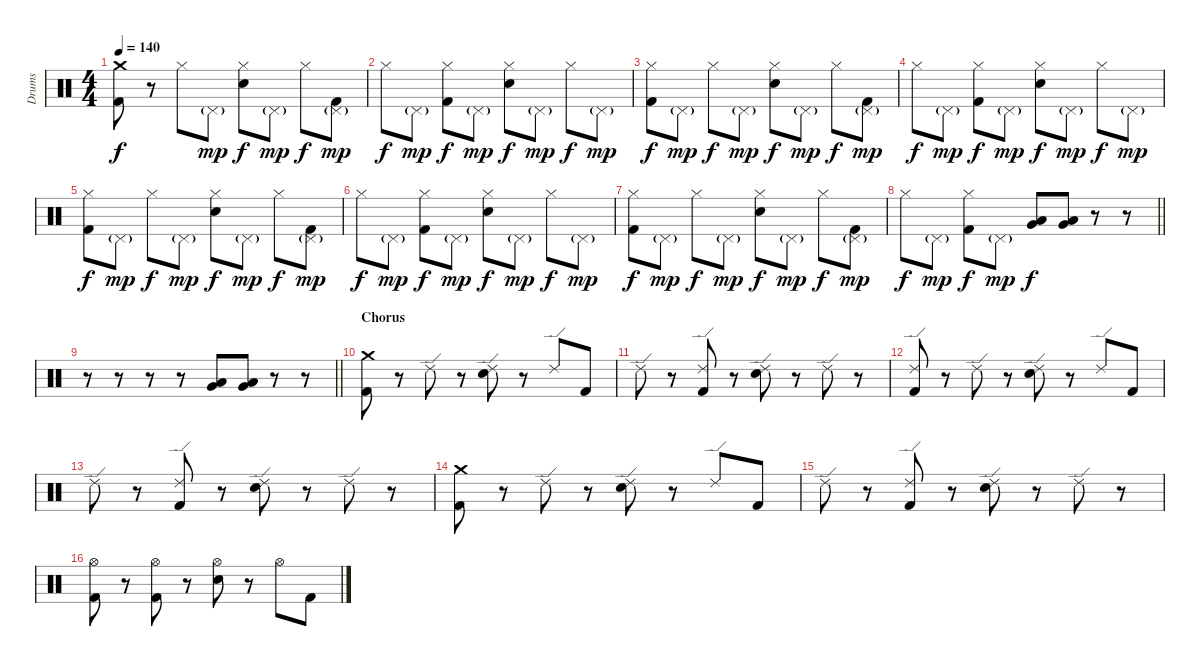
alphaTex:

\track ("Drums" "Drums") {instrument percussion}
\staff {score}
\articulation defaults
\ts (4 4)
\tempo 140
\clef neutral
\ks c
("Crash medium (hit)" "Kick (hit) 2").8{dy f} r.8 "Hi-Hat (closed)".8 "Pedal Hi-Hat (hit)"{g}.8{dy mp} ("Hi-Hat (closed)" "Electric Snare (hit)").8{dy f} "Pedal Hi-Hat (hit)"{g}.8{dy mp} "Hi-Hat (closed)".8{dy f} ("Pedal Hi-Hat (hit)"{g} "Kick (hit) 2").8{dy mp} |
"Hi-Hat (closed)".8{dy f} "Pedal Hi-Hat (hit)"{g}.8{dy mp} ("Hi-Hat (closed)" "Kick (hit) 2").8{dy f} "Pedal Hi-Hat (hit)"{g}.8{dy mp} ("Hi-Hat (closed)" "Electric Snare (hit)").8{dy f} "Pedal Hi-Hat (hit)"{g}.8{dy mp} "Hi-Hat (closed)".8{dy f} "Pedal Hi-Hat (hit)"{g}.8{dy mp} |
("Hi-Hat (closed)" "Kick (hit) 2").8{dy f} "Pedal Hi-Hat (hit)"{g}.8{dy mp} "Hi-Hat (closed)".8{dy f} "Pedal Hi-Hat (hit)"{g}.8{dy mp} ("Hi-Hat (closed)" "Electric Snare (hit)").8{dy f} "Pedal Hi-Hat (hit)"{g}.8{dy mp} "Hi-Hat (closed)".8{dy f} ("Pedal Hi-Hat (hit)"{g} "Kick (hit) 2").8{dy mp} |
"Hi-Hat (closed)".8{dy f} "Pedal Hi-Hat (hit)"{g}.8{dy mp} ("Hi-Hat (closed)" "Kick (hit) 2").8{dy f} "Pedal Hi-Hat (hit)"{g}.8{dy mp} ("Hi-Hat (closed)" "Electric Snare (hit)").8{dy f} "Pedal Hi-Hat (hit)"{g}.8{dy mp} "Hi-Hat (closed)".8{dy f} "Pedal Hi-Hat (hit)"{g}.8{dy mp} |
("Hi-Hat (closed)" "Kick (hit) 2").8{dy f} "Pedal Hi-Hat (hit)"{g}.8{dy mp} "Hi-Hat (closed)".8{dy f} "Pedal Hi-Hat (hit)"{g}.8{dy mp} ("Hi-Hat (closed)" "Electric Snare (hit)").8{dy f} "Pedal Hi-Hat (hit)"{g}.8{dy mp} "Hi-Hat (closed)".8{dy f} ("Pedal Hi-Hat (hit)"{g} "Kick (hit) 2").8{dy mp} |
"Hi-Hat (closed)".8{dy f} "Pedal Hi-Hat (hit)"{g}.8{dy mp} ("Hi-Hat (closed)" "Kick (hit) 2").8{dy f} "Pedal Hi-Hat (hit)"{g}.8{dy mp} ("Hi-Hat (closed)" "Electric Snare (hit)").8{dy f} "Pedal Hi-Hat (hit)"{g}.8{dy mp} "Hi-Hat (closed)".8{dy f} "Pedal Hi-Hat (hit)"{g}.8{dy mp} |
("Hi-Hat (closed)" "Kick (hit) 2").8{dy f} "Pedal Hi-Hat (hit)"{g}.8{dy mp} "Hi-Hat (closed)".8{dy f} "Pedal Hi-Hat (hit)"{g}.8{dy mp} ("Hi-Hat (closed)" "Electric Snare (hit)").8{dy f} "Pedal Hi-Hat (hit)"{g}.8{dy mp} "Hi-Hat (closed)".8{dy f} ("Pedal Hi-Hat (hit)"{g} "Kick (hit) 2").8{dy mp} |
\barLineRight lightlight "Hi-Hat (closed)".8{dy f} "Pedal Hi-Hat (hit)"{g}.8{dy mp}
("Hi-Hat (closed)" "Kick (hit) 2").8{dy f} "Pedal Hi-Hat (hit)"{g}.8{dy mp} ("Very Low Tom (hit)" "Low Tom (hit)").8{dy f} ("Very Low Tom (hit)" "Low Tom (hit)").8 r.8 r.8 |
\barLineRight lightlight
r.8 r.8 r.8 r.8 ("Very Low Tom (hit)" "Low Tom (hit)").8 ("Very Low Tom (hit)" "Low Tom (hit)").8 r.8 r.8 |
\section ("" "Chorus")
("Crash medium (hit)" "Kick (hit) 2").8 r.8 "Ride (edge) 2".8 r.8 ("Ride (edge) 2" "Electric Snare (hit)").8 r.8 "Ride (edge) 2".8 "Kick (hit) 2".8 |
"Ride (edge) 2".8 r.8 ("Ride (edge) 2" "Kick (hit) 2").8 r.8 ("Ride (edge) 2" "Electric Snare (hit)").8 r.8 "Ride (edge) 2".8 r.8 |
("Ride (edge) 2" "Kick (hit) 2").8 r.8 "Ride (edge) 2".8 r.8 ("Ride (edge) 2" "Electric Snare (hit)").8 r.8 "Ride (edge) 2".8 "Kick (hit) 2".8 |
"Ride (edge) 2".8 r.8 ("Ride (edge) 2" "Kick (hit) 2").8 r.8 ("Ride (edge) 2" "Electric Snare (hit)").8 r.8 "Ride (edge) 2".8 r.8 |
("Crash medium (hit)" "Kick (hit) 2").8 r.8 "Ride (edge) 2".8 r.8 ("Ride (edge) 2" "Electric Snare (hit)").8 r.8 "Ride (edge) 2".8 "Kick (hit) 2".8 |
"Ride (edge) 2".8 r.8 ("Ride (edge) 2" "Kick (hit) 2").8 r.8 ("Ride (edge) 2" "Electric Snare (hit)").8 r.8 "Ride (edge) 2".8 r.8 |
("Hi-Hat (open)" "Kick (hit) 2").8 r.8 ("Hi-Hat (open)" "Kick (hit) 2").8 r.8 ("Hi-Hat (open)" "Electric Snare (hit)").8 r.8 "Hi-Hat (open)".8 "Kick (hit) 2".8
